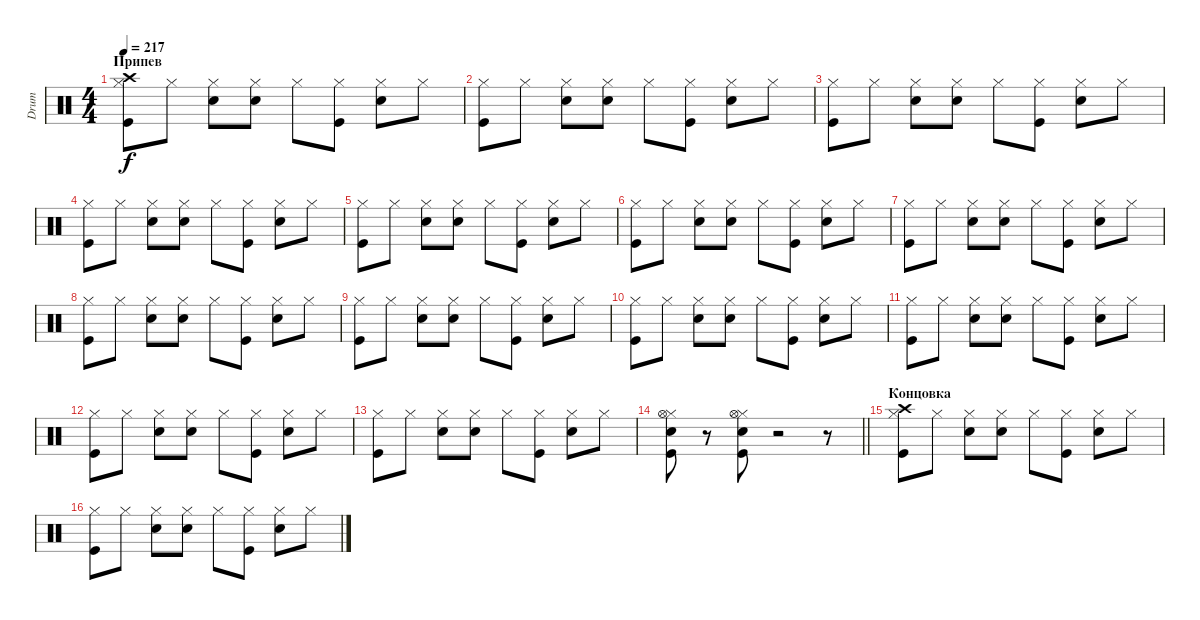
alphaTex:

\track ("Drum" "Drum") {instrument percussion}
\staff {score}
\articulation defaults
\ts (4 4)
\section ("" "Припев")
\tempo 217
\clef neutral
\ks c
("Kick (hit)" "Hi-Hat (closed)" "Crash high (hit)").8{dy f} "Hi-Hat (closed)".8 ("Snare (hit) 2" "Hi-Hat (closed)").8 ("Snare (hit) 2" "Hi-Hat (closed)").8 "Hi-Hat (closed)".8 ("Kick (hit)" "Hi-Hat (closed)").8 ("Snare (hit) 2" "Hi-Hat (closed)").8 "Hi-Hat (closed)".8 |
("Kick (hit)" "Hi-Hat (closed)").8 "Hi-Hat (closed)".8 ("Snare (hit) 2" "Hi-Hat (closed)").8 ("Snare (hit) 2" "Hi-Hat (closed)").8 "Hi-Hat (closed)".8 ("Kick (hit)" "Hi-Hat (closed)").8 ("Snare (hit) 2" "Hi-Hat (closed)").8 "Hi-Hat (closed)".8 |
("Kick (hit)" "Hi-Hat (closed)").8 "Hi-Hat (closed)".8 ("Snare (hit) 2" "Hi-Hat (closed)").8 ("Snare (hit) 2" "Hi-Hat (closed)").8 "Hi-Hat (closed)".8 ("Kick (hit)" "Hi-Hat (closed)").8 ("Snare (hit) 2" "Hi-Hat (closed)").8 "Hi-Hat (closed)".8 |
("Kick (hit)" "Hi-Hat (closed)").8 "Hi-Hat (closed)".8 ("Snare (hit) 2" "Hi-Hat (closed)").8 ("Snare (hit) 2" "Hi-Hat (closed)").8 "Hi-Hat (closed)".8 ("Kick (hit)" "Hi-Hat (closed)").8 ("Snare (hit) 2" "Hi-Hat (closed)").8 "Hi-Hat (closed)".8 |
("Kick (hit)" "Hi-Hat (closed)").8 "Hi-Hat (closed)".8 ("Snare (hit) 2" "Hi-Hat (closed)").8 ("Snare (hit) 2" "Hi-Hat (closed)").8 "Hi-Hat (closed)".8 ("Kick (hit)" "Hi-Hat (closed)").8 ("Snare (hit) 2" "Hi-Hat (closed)").8 "Hi-Hat (closed)".8 |
("Kick (hit)" "Hi-Hat (closed)").8 "Hi-Hat (closed)".8 ("Snare (hit) 2" "Hi-Hat (closed)").8 ("Snare (hit) 2" "Hi-Hat (closed)").8 "Hi-Hat (closed)".8 ("Kick (hit)" "Hi-Hat (closed)").8 ("Snare (hit) 2" "Hi-Hat (closed)").8 "Hi-Hat (closed)".8 |
("Kick (hit)" "Hi-Hat (closed)").8 "Hi-Hat (closed)".8 ("Snare (hit) 2" "Hi-Hat (closed)").8 ("Snare (hit) 2" "Hi-Hat (closed)").8 "Hi-Hat (closed)".8 ("Kick (hit)" "Hi-Hat (closed)").8 ("Snare (hit) 2" "Hi-Hat (closed)").8 "Hi-Hat (closed)".8 |
("Kick (hit)" "Hi-Hat (closed)").8 "Hi-Hat (closed)".8 ("Snare (hit) 2" "Hi-Hat (closed)").8 ("Snare (hit) 2" "Hi-Hat (closed)").8 "Hi-Hat (closed)".8 ("Kick (hit)" "Hi-Hat (closed)").8 ("Snare (hit) 2" "Hi-Hat (closed)").8 "Hi-Hat (closed)".8 |
("Kick (hit)" "Hi-Hat (closed)").8 "Hi-Hat (closed)".8 ("Snare (hit) 2" "Hi-Hat (closed)").8 ("Snare (hit) 2" "Hi-Hat (closed)").8 "Hi-Hat (closed)".8 ("Kick (hit)" "Hi-Hat (closed)").8 ("Snare (hit) 2" "Hi-Hat (closed)").8 "Hi-Hat (closed)".8 |
("Kick (hit)" "Hi-Hat (closed)").8 "Hi-Hat (closed)".8 ("Snare (hit) 2" "Hi-Hat (closed)").8 ("Snare (hit) 2" "Hi-Hat (closed)").8 "Hi-Hat (closed)".8 ("Kick (hit)" "Hi-Hat (closed)").8 ("Snare (hit) 2" "Hi-Hat (closed)").8 "Hi-Hat (closed)".8 |
("Kick (hit)" "Hi-Hat (closed)").8 "Hi-Hat (closed)".8 ("Snare (hit) 2" "Hi-Hat (closed)").8 ("Snare (hit) 2" "Hi-Hat (closed)").8 "Hi-Hat (closed)".8 ("Kick (hit)" "Hi-Hat (closed)").8 ("Snare (hit) 2" "Hi-Hat (closed)").8 "Hi-Hat (closed)".8 |
("Kick (hit)" "Hi-Hat (closed)").8 "Hi-Hat (closed)".8 ("Snare (hit) 2" "Hi-Hat (closed)").8 ("Snare (hit) 2" "Hi-Hat (closed)").8 "Hi-Hat (closed)".8 ("Kick (hit)" "Hi-Hat (closed)").8 ("Snare (hit) 2" "Hi-Hat (closed)").8 "Hi-Hat (closed)".8 |
("Kick (hit)" "Hi-Hat (closed)").8 "Hi-Hat (closed)".8 ("Snare (hit) 2" "Hi-Hat (closed)").8 ("Snare (hit) 2" "Hi-Hat (closed)").8 "Hi-Hat (closed)".8 ("Kick (hit)" "Hi-Hat (closed)").8 ("Snare (hit) 2" "Hi-Hat (closed)").8 "Hi-Hat (closed)".8 |
\barLineRight lightlight
("Kick (hit)" "Snare (hit) 2" "Hi-Hat (closed)" "Hi-Hat (open)").8 r.8 ("Kick (hit)" "Snare (hit) 2" "Hi-Hat (closed)" "Hi-Hat (open)").8 r.2 r.8 |
\section ("" "Концовка")
("Kick (hit)" "Hi-Hat (closed)" "Crash high (hit)").8 "Hi-Hat (closed)".8 ("Snare (hit) 2" "Hi-Hat (closed)").8 ("Snare (hit) 2" "Hi-Hat (closed)").8 "Hi-Hat (closed)".8 ("Kick (hit)" "Hi-Hat (closed)").8 ("Snare (hit) 2" "Hi-Hat (closed)").8 "Hi-Hat (closed)".8 |
("Kick (hit)" "Hi-Hat (closed)").8 "Hi-Hat (closed)".8 ("Snare (hit) 2" "Hi-Hat (closed)").8 ("Snare (hit) 2" "Hi-Hat (closed)").8 "Hi-Hat (closed)".8 ("Kick (hit)" "Hi-Hat (closed)").8 ("Snare (hit) 2" "Hi-Hat (closed)").8 "Hi-Hat (closed)".8
